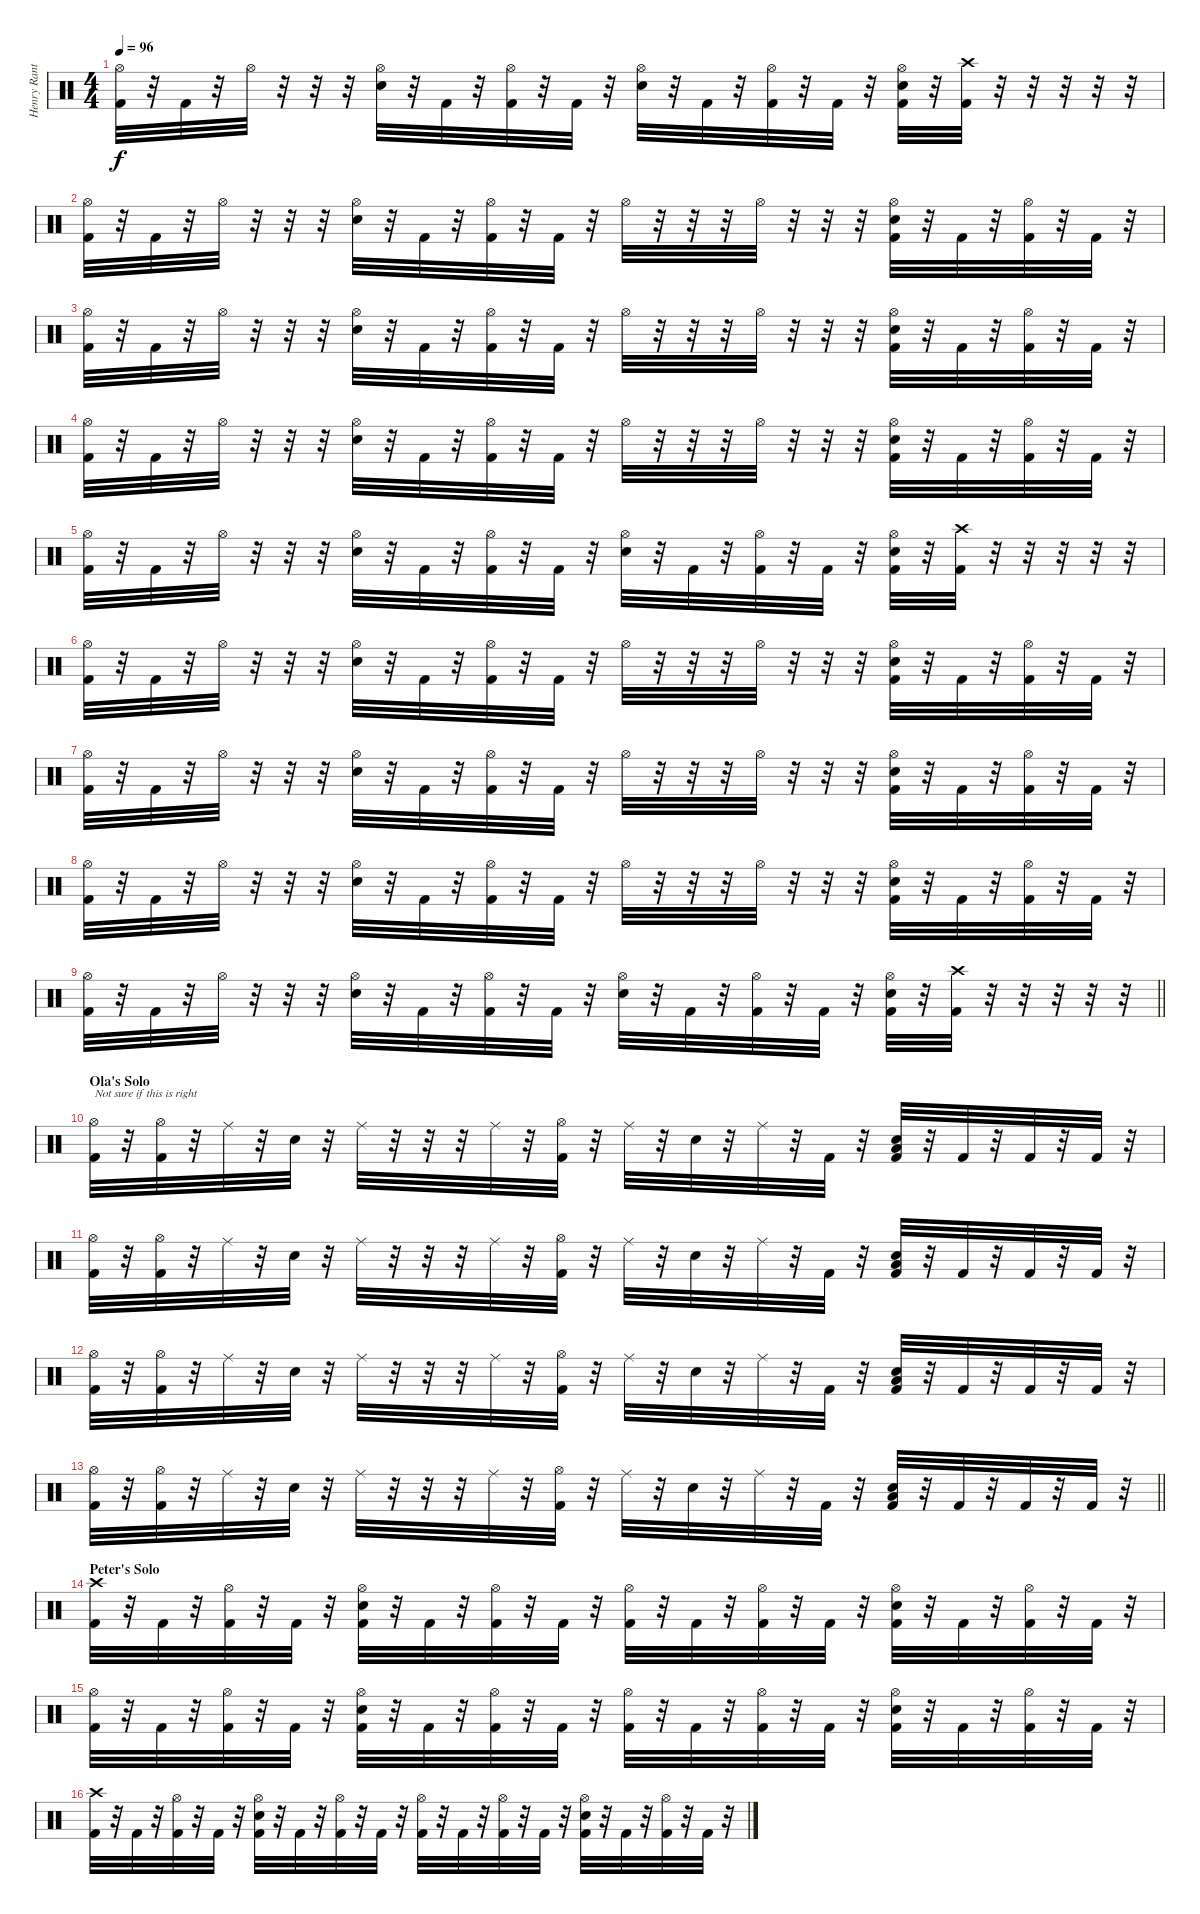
\track ("Henry Ranta (Drumms)" "Henry Rant") {instrument percussion}
\staff {score}
\articulation defaults
\ts (4 4)
\tempo 96
\clef neutral
\ks c
("Hi-Hat (open)" "Kick (hit) 2").32{dy f} r.32 "Kick (hit) 2".32 r.32 "Hi-Hat (open)".32 r.32 r.32 r.32 ("Hi-Hat (open)" "Snare (hit) 2").32 r.32 "Kick (hit) 2".32 r.32 ("Hi-Hat (open)" "Kick (hit) 2").32 r.32 "Kick (hit) 2".32 r.32 ("Hi-Hat (open)" "Snare (hit) 2").32 r.32 "Kick (hit) 2".32 r.32 ("Hi-Hat (open)" "Kick (hit) 2").32 r.32 "Kick (hit) 2".32 r.32 ("Hi-Hat (open)" "Snare (hit) 2" "Kick (hit) 2").32 r.32 ("Crash high (hit)" "Kick (hit) 2").32 r.32 r.32 r.32 r.32 r.32 |
("Hi-Hat (open)" "Kick (hit) 2").32 r.32 "Kick (hit) 2".32 r.32 "Hi-Hat (open)".32 r.32 r.32 r.32 ("Hi-Hat (open)" "Snare (hit) 2").32 r.32 "Kick (hit) 2".32 r.32 ("Hi-Hat (open)" "Kick (hit) 2").32 r.32 "Kick (hit) 2".32 r.32 "Hi-Hat (open)".32 r.32 r.32 r.32 "Hi-Hat (open)".32 r.32 r.32 r.32 ("Hi-Hat (open)" "Snare (hit) 2" "Kick (hit) 2").32 r.32 "Kick (hit) 2".32 r.32 ("Hi-Hat (open)" "Kick (hit) 2").32 r.32 "Kick (hit) 2".32 r.32 |
("Hi-Hat (open)" "Kick (hit) 2").32 r.32 "Kick (hit) 2".32 r.32 "Hi-Hat (open)".32 r.32 r.32 r.32 ("Hi-Hat (open)" "Snare (hit) 2").32 r.32 "Kick (hit) 2".32 r.32 ("Hi-Hat (open)" "Kick (hit) 2").32 r.32 "Kick (hit) 2".32 r.32 "Hi-Hat (open)".32 r.32 r.32 r.32 "Hi-Hat (open)".32 r.32 r.32 r.32 ("Hi-Hat (open)" "Snare (hit) 2" "Kick (hit) 2").32 r.32 "Kick (hit) 2".32 r.32 ("Hi-Hat (open)" "Kick (hit) 2").32 r.32 "Kick (hit) 2".32 r.32 |
("Hi-Hat (open)" "Kick (hit) 2").32 r.32 "Kick (hit) 2".32 r.32 "Hi-Hat (open)".32 r.32 r.32 r.32 ("Hi-Hat (open)" "Snare (hit) 2").32 r.32 "Kick (hit) 2".32 r.32 ("Hi-Hat (open)" "Kick (hit) 2").32 r.32 "Kick (hit) 2".32 r.32 "Hi-Hat (open)".32 r.32 r.32 r.32 "Hi-Hat (open)".32 r.32 r.32 r.32 ("Hi-Hat (open)" "Snare (hit) 2" "Kick (hit) 2").32 r.32 "Kick (hit) 2".32 r.32 ("Hi-Hat (open)" "Kick (hit) 2").32 r.32 "Kick (hit) 2".32 r.32 |
("Hi-Hat (open)" "Kick (hit) 2").32 r.32 "Kick (hit) 2".32 r.32 "Hi-Hat (open)".32 r.32 r.32 r.32 ("Hi-Hat (open)" "Snare (hit) 2").32 r.32 "Kick (hit) 2".32 r.32 ("Hi-Hat (open)" "Kick (hit) 2").32 r.32 "Kick (hit) 2".32 r.32 ("Hi-Hat (open)" "Snare (hit) 2").32 r.32 "Kick (hit) 2".32 r.32 ("Hi-Hat (open)" "Kick (hit) 2").32 r.32 "Kick (hit) 2".32 r.32 ("Hi-Hat (open)" "Snare (hit) 2" "Kick (hit) 2").32 r.32 ("Crash high (hit)" "Kick (hit) 2").32 r.32 r.32 r.32 r.32 r.32 |
("Hi-Hat (open)" "Kick (hit) 2").32 r.32 "Kick (hit) 2".32 r.32 "Hi-Hat (open)".32 r.32 r.32 r.32 ("Hi-Hat (open)" "Snare (hit) 2").32 r.32 "Kick (hit) 2".32 r.32 ("Hi-Hat (open)" "Kick (hit) 2").32 r.32 "Kick (hit) 2".32 r.32 "Hi-Hat (open)".32 r.32 r.32 r.32 "Hi-Hat (open)".32 r.32 r.32 r.32 ("Hi-Hat (open)" "Snare (hit) 2" "Kick (hit) 2").32 r.32 "Kick (hit) 2".32 r.32 ("Hi-Hat (open)" "Kick (hit) 2").32 r.32 "Kick (hit) 2".32 r.32 |
("Hi-Hat (open)" "Kick (hit) 2").32 r.32 "Kick (hit) 2".32 r.32 "Hi-Hat (open)".32 r.32 r.32 r.32 ("Hi-Hat (open)" "Snare (hit) 2").32 r.32 "Kick (hit) 2".32 r.32 ("Hi-Hat (open)" "Kick (hit) 2").32 r.32 "Kick (hit) 2".32 r.32 "Hi-Hat (open)".32 r.32 r.32 r.32 "Hi-Hat (open)".32 r.32 r.32 r.32 ("Hi-Hat (open)" "Snare (hit) 2" "Kick (hit) 2").32 r.32 "Kick (hit) 2".32 r.32 ("Hi-Hat (open)" "Kick (hit) 2").32 r.32 "Kick (hit) 2".32 r.32 |
("Hi-Hat (open)" "Kick (hit) 2").32 r.32 "Kick (hit) 2".32 r.32 "Hi-Hat (open)".32 r.32 r.32 r.32 ("Hi-Hat (open)" "Snare (hit) 2").32 r.32 "Kick (hit) 2".32 r.32 ("Hi-Hat (open)" "Kick (hit) 2").32 r.32 "Kick (hit) 2".32 r.32 "Hi-Hat (open)".32 r.32 r.32 r.32 "Hi-Hat (open)".32 r.32 r.32 r.32 ("Hi-Hat (open)" "Snare (hit) 2" "Kick (hit) 2").32 r.32 "Kick (hit) 2".32 r.32 ("Hi-Hat (open)" "Kick (hit) 2").32 r.32 "Kick (hit) 2".32 r.32 |
\barLineRight lightlight
("Hi-Hat (open)" "Kick (hit) 2").32 r.32 "Kick (hit) 2".32 r.32 "Hi-Hat (open)".32 r.32 r.32 r.32 ("Hi-Hat (open)" "Snare (hit) 2").32 r.32 "Kick (hit) 2".32 r.32 ("Hi-Hat (open)" "Kick (hit) 2").32 r.32 "Kick (hit) 2".32 r.32 ("Hi-Hat (open)" "Snare (hit) 2").32 r.32 "Kick (hit) 2".32 r.32 ("Hi-Hat (open)" "Kick (hit) 2").32 r.32 "Kick (hit) 2".32 r.32 ("Hi-Hat (open)" "Snare (hit) 2" "Kick (hit) 2").32 r.32 ("Crash high (hit)" "Kick (hit) 2").32 r.32 r.32 r.32 r.32 r.32 |
\section ("" "Ola's Solo")
("Hi-Hat (open)" "Kick (hit) 2").32{txt "Not sure if this is right"} r.32 ("Hi-Hat (open)" "Kick (hit) 2").32 r.32 "Ride (middle)".32 r.32 "Snare (hit) 2".32 r.32 "Ride (middle)".32 r.32 r.32 r.32 "Ride (middle)".32 r.32 ("Hi-Hat (open)" "Kick (hit) 2").32 r.32 "Ride (middle)".32 r.32 "Snare (hit) 2".32 r.32 "Ride (middle)".32 r.32 "Kick (hit) 2".32 r.32 ("Snare (hit) 2" "Low Floor Tom (hit)" "Kick (hit) 2").32 r.32 "Kick (hit) 2".32 r.32 "Kick (hit) 2".32 r.32 "Kick (hit) 2".32 r.32 |
("Hi-Hat (open)" "Kick (hit) 2").32 r.32 ("Hi-Hat (open)" "Kick (hit) 2").32 r.32 "Ride (middle)".32 r.32 "Snare (hit) 2".32 r.32 "Ride (middle)".32 r.32 r.32 r.32 "Ride (middle)".32 r.32 ("Hi-Hat (open)" "Kick (hit) 2").32 r.32 "Ride (middle)".32 r.32 "Snare (hit) 2".32 r.32 "Ride (middle)".32 r.32 "Kick (hit) 2".32 r.32 ("Snare (hit) 2" "Low Floor Tom (hit)" "Kick (hit) 2").32 r.32 "Kick (hit) 2".32 r.32 "Kick (hit) 2".32 r.32 "Kick (hit) 2".32 r.32 |
("Hi-Hat (open)" "Kick (hit) 2").32 r.32 ("Hi-Hat (open)" "Kick (hit) 2").32 r.32 "Ride (middle)".32 r.32 "Snare (hit) 2".32 r.32 "Ride (middle)".32 r.32 r.32 r.32 "Ride (middle)".32 r.32 ("Hi-Hat (open)" "Kick (hit) 2").32 r.32 "Ride (middle)".32 r.32 "Snare (hit) 2".32 r.32 "Ride (middle)".32 r.32 "Kick (hit) 2".32 r.32 ("Snare (hit) 2" "Low Floor Tom (hit)" "Kick (hit) 2").32 r.32 "Kick (hit) 2".32 r.32 "Kick (hit) 2".32 r.32 "Kick (hit) 2".32 r.32 |
\barLineRight lightlight
("Hi-Hat (open)" "Kick (hit) 2").32 r.32 ("Hi-Hat (open)" "Kick (hit) 2").32 r.32 "Ride (middle)".32 r.32 "Snare (hit) 2".32 r.32 "Ride (middle)".32 r.32 r.32 r.32 "Ride (middle)".32 r.32 ("Hi-Hat (open)" "Kick (hit) 2").32 r.32 "Ride (middle)".32 r.32 "Snare (hit) 2".32 r.32 "Ride (middle)".32 r.32 "Kick (hit) 2".32 r.32 ("Snare (hit) 2" "Low Floor Tom (hit)" "Kick (hit) 2").32 r.32 "Kick (hit) 2".32 r.32 "Kick (hit) 2".32 r.32 "Kick (hit) 2".32 r.32 |
\section ("" "Peter's Solo")
("Crash high (hit)" "Kick (hit) 2").32 r.32 "Kick (hit) 2".32 r.32 ("Hi-Hat (open)" "Kick (hit) 2").32 r.32 "Kick (hit) 2".32 r.32 ("Hi-Hat (open)" "Snare (hit) 2" "Kick (hit) 2").32 r.32 "Kick (hit) 2".32 r.32 ("Hi-Hat (open)" "Kick (hit) 2").32 r.32 "Kick (hit) 2".32 r.32 ("Hi-Hat (open)" "Kick (hit) 2").32 r.32 "Kick (hit) 2".32 r.32 ("Hi-Hat (open)" "Kick (hit) 2").32 r.32 "Kick (hit) 2".32 r.32 ("Hi-Hat (open)" "Snare (hit) 2" "Kick (hit) 2").32 r.32 "Kick (hit) 2".32 r.32 ("Hi-Hat (open)" "Kick (hit) 2").32 r.32 "Kick (hit) 2".32 r.32 |
("Hi-Hat (open)" "Kick (hit) 2").32 r.32 "Kick (hit) 2".32 r.32 ("Hi-Hat (open)" "Kick (hit) 2").32 r.32 "Kick (hit) 2".32 r.32 ("Hi-Hat (open)" "Snare (hit) 2" "Kick (hit) 2").32 r.32 "Kick (hit) 2".32 r.32 ("Hi-Hat (open)" "Kick (hit) 2").32 r.32 "Kick (hit) 2".32 r.32 ("Hi-Hat (open)" "Kick (hit) 2").32 r.32 "Kick (hit) 2".32 r.32 ("Hi-Hat (open)" "Kick (hit) 2").32 r.32 "Kick (hit) 2".32 r.32 ("Hi-Hat (open)" "Snare (hit) 2" "Kick (hit) 2").32 r.32 "Kick (hit) 2".32 r.32 ("Hi-Hat (open)" "Kick (hit) 2").32 r.32 "Kick (hit) 2".32 r.32 |
("Crash high (hit)" "Kick (hit) 2").32 r.32 "Kick (hit) 2".32 r.32 ("Hi-Hat (open)" "Kick (hit) 2").32 r.32 "Kick (hit) 2".32 r.32 ("Hi-Hat (open)" "Snare (hit) 2" "Kick (hit) 2").32 r.32 "Kick (hit) 2".32 r.32 ("Hi-Hat (open)" "Kick (hit) 2").32 r.32 "Kick (hit) 2".32 r.32 ("Hi-Hat (open)" "Kick (hit) 2").32 r.32 "Kick (hit) 2".32 r.32 ("Hi-Hat (open)" "Kick (hit) 2").32 r.32 "Kick (hit) 2".32 r.32 ("Hi-Hat (open)" "Snare (hit) 2" "Kick (hit) 2").32 r.32 "Kick (hit) 2".32 r.32 ("Hi-Hat (open)" "Kick (hit) 2").32 r.32 "Kick (hit) 2".32 r.32
